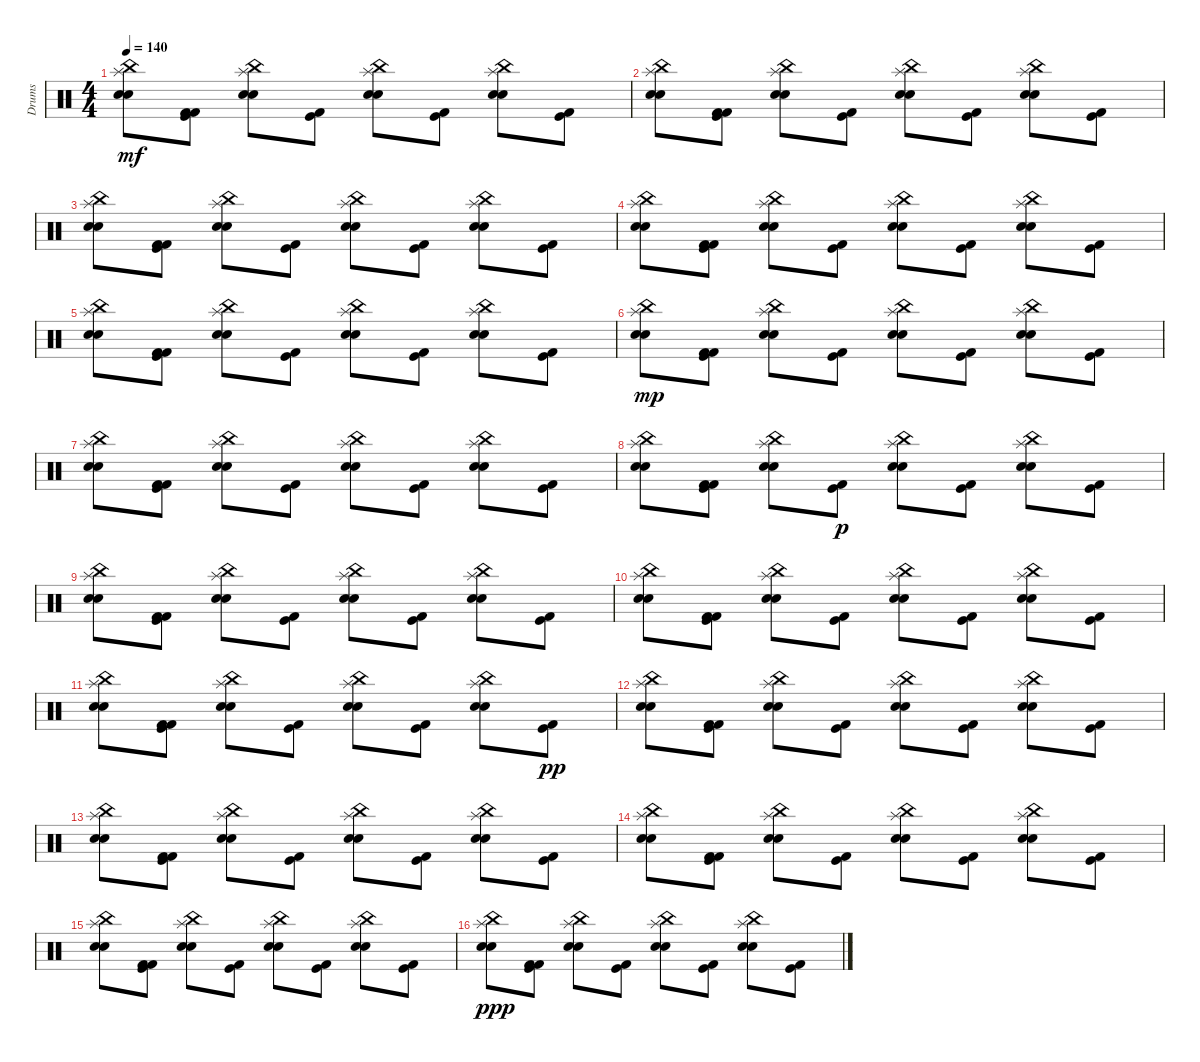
\track ("Drums" "Drums") {instrument percussion}
\staff {score}
\articulation defaults
\ts (4 4)
\tempo 140
\clef neutral
\ks c
("China (hit)" "Snare (hit) 2" "Electric Snare (hit)" "Splash (hit)").8{dy mf} ("Kick (hit) 2" "Kick (hit) 2" "Kick (hit)").8 ("Splash (hit)" "Electric Snare (hit)" "Snare (hit) 2" "China (hit)").8 ("Kick (hit)" "Kick (hit) 2").8 ("China (hit)" "Splash (hit)" "Electric Snare (hit)" "Snare (hit) 2").8 ("Kick (hit)" "Kick (hit) 2").8 ("Snare (hit) 2" "Electric Snare (hit)" "Splash (hit)" "China (hit)").8 ("Kick (hit)" "Kick (hit) 2").8 |
("China (hit)" "Snare (hit) 2" "Electric Snare (hit)" "Splash (hit)").8 ("Kick (hit) 2" "Kick (hit) 2" "Kick (hit)").8 ("Splash (hit)" "Electric Snare (hit)" "Snare (hit) 2" "China (hit)").8 ("Kick (hit)" "Kick (hit) 2").8 ("China (hit)" "Splash (hit)" "Electric Snare (hit)" "Snare (hit) 2").8 ("Kick (hit)" "Kick (hit) 2").8 ("Snare (hit) 2" "Electric Snare (hit)" "Splash (hit)" "China (hit)").8 ("Kick (hit)" "Kick (hit) 2").8 |
("China (hit)" "Snare (hit) 2" "Electric Snare (hit)" "Splash (hit)").8 ("Kick (hit) 2" "Kick (hit) 2" "Kick (hit)").8 ("Splash (hit)" "Electric Snare (hit)" "Snare (hit) 2" "China (hit)").8 ("Kick (hit) 2" "Kick (hit)").8 ("China (hit)" "Splash (hit)" "Electric Snare (hit)" "Snare (hit) 2").8 ("Kick (hit)" "Kick (hit) 2").8 ("Snare (hit) 2" "Electric Snare (hit)" "Splash (hit)" "China (hit)").8 ("Kick (hit)" "Kick (hit) 2").8 |
("China (hit)" "Snare (hit) 2" "Electric Snare (hit)" "Splash (hit)").8 ("Kick (hit) 2" "Kick (hit) 2" "Kick (hit)").8 ("Splash (hit)" "Electric Snare (hit)" "Snare (hit) 2" "China (hit)").8 ("Kick (hit)" "Kick (hit) 2").8 ("China (hit)" "Splash (hit)" "Electric Snare (hit)" "Snare (hit) 2").8 ("Kick (hit)" "Kick (hit) 2").8 ("Snare (hit) 2" "Electric Snare (hit)" "Splash (hit)" "China (hit)").8 ("Kick (hit)" "Kick (hit) 2").8 |
("China (hit)" "Snare (hit) 2" "Electric Snare (hit)" "Splash (hit)").8 ("Kick (hit) 2" "Kick (hit) 2" "Kick (hit)").8 ("Splash (hit)" "Electric Snare (hit)" "Snare (hit) 2" "China (hit)").8 ("Kick (hit) 2" "Kick (hit)").8 ("Splash (hit)" "Electric Snare (hit)" "Snare (hit) 2" "China (hit)").8 ("Kick (hit) 2" "Kick (hit)").8 ("Snare (hit) 2" "Electric Snare (hit)" "Splash (hit)" "China (hit)").8 ("Kick (hit)" "Kick (hit) 2").8 |
("China (hit)" "Snare (hit) 2" "Electric Snare (hit)" "Splash (hit)").8{dy mp} ("Kick (hit) 2" "Kick (hit) 2" "Kick (hit)").8 ("Splash (hit)" "Electric Snare (hit)" "Snare (hit) 2" "China (hit)").8 ("Kick (hit)" "Kick (hit) 2").8 ("China (hit)" "Splash (hit)" "Electric Snare (hit)" "Snare (hit) 2").8 ("Kick (hit)" "Kick (hit) 2").8 ("Snare (hit) 2" "Electric Snare (hit)" "Splash (hit)" "China (hit)").8 ("Kick (hit)" "Kick (hit) 2").8 |
("China (hit)" "Snare (hit) 2" "Electric Snare (hit)" "Splash (hit)").8 ("Kick (hit) 2" "Kick (hit) 2" "Kick (hit)").8 ("Splash (hit)" "Electric Snare (hit)" "Snare (hit) 2" "China (hit)").8 ("Kick (hit)" "Kick (hit) 2").8 ("China (hit)" "Splash (hit)" "Electric Snare (hit)" "Snare (hit) 2").8 ("Kick (hit)" "Kick (hit) 2").8 ("Snare (hit) 2" "Electric Snare (hit)" "Splash (hit)" "China (hit)").8 ("Kick (hit)" "Kick (hit) 2").8 |
("China (hit)" "Snare (hit) 2" "Electric Snare (hit)" "Splash (hit)").8 ("Kick (hit) 2" "Kick (hit) 2" "Kick (hit)").8 ("Splash (hit)" "Electric Snare (hit)" "Snare (hit) 2" "China (hit)").8 ("Kick (hit) 2" "Kick (hit)").8{dy p} ("China (hit)" "Splash (hit)" "Electric Snare (hit)" "Snare (hit) 2").8 ("Kick (hit)" "Kick (hit) 2").8 ("Snare (hit) 2" "Electric Snare (hit)" "Splash (hit)" "China (hit)").8 ("Kick (hit)" "Kick (hit) 2").8 |
("China (hit)" "Snare (hit) 2" "Electric Snare (hit)" "Splash (hit)").8 ("Kick (hit) 2" "Kick (hit) 2" "Kick (hit)").8 ("Splash (hit)" "Electric Snare (hit)" "Snare (hit) 2" "China (hit)").8 ("Kick (hit)" "Kick (hit) 2").8 ("China (hit)" "Splash (hit)" "Electric Snare (hit)" "Snare (hit) 2").8 ("Kick (hit)" "Kick (hit) 2").8 ("Snare (hit) 2" "Electric Snare (hit)" "Splash (hit)" "China (hit)").8 ("Kick (hit)" "Kick (hit) 2").8 |
("China (hit)" "Snare (hit) 2" "Electric Snare (hit)" "Splash (hit)").8 ("Kick (hit) 2" "Kick (hit) 2" "Kick (hit)").8 ("Splash (hit)" "Electric Snare (hit)" "Snare (hit) 2" "China (hit)").8 ("Kick (hit) 2" "Kick (hit)").8 ("Splash (hit)" "Electric Snare (hit)" "Snare (hit) 2" "China (hit)").8 ("Kick (hit) 2" "Kick (hit)").8 ("Snare (hit) 2" "Electric Snare (hit)" "Splash (hit)" "China (hit)").8 ("Kick (hit)" "Kick (hit) 2").8 |
("China (hit)" "Snare (hit) 2" "Electric Snare (hit)" "Splash (hit)").8 ("Kick (hit) 2" "Kick (hit) 2" "Kick (hit)").8 ("Splash (hit)" "Electric Snare (hit)" "Snare (hit) 2" "China (hit)").8 ("Kick (hit)" "Kick (hit) 2").8 ("China (hit)" "Splash (hit)" "Electric Snare (hit)" "Snare (hit) 2").8 ("Kick (hit)" "Kick (hit) 2").8 ("Snare (hit) 2" "Electric Snare (hit)" "Splash (hit)" "China (hit)").8 ("Kick (hit)" "Kick (hit) 2").8{dy pp} |
("China (hit)" "Snare (hit) 2" "Electric Snare (hit)" "Splash (hit)").8 ("Kick (hit) 2" "Kick (hit) 2" "Kick (hit)").8 ("Splash (hit)" "Electric Snare (hit)" "Snare (hit) 2" "China (hit)").8 ("Kick (hit)" "Kick (hit) 2").8 ("China (hit)" "Splash (hit)" "Electric Snare (hit)" "Snare (hit) 2").8 ("Kick (hit)" "Kick (hit) 2").8 ("Snare (hit) 2" "Electric Snare (hit)" "Splash (hit)" "China (hit)").8 ("Kick (hit)" "Kick (hit) 2").8 |
("China (hit)" "Snare (hit) 2" "Electric Snare (hit)" "Splash (hit)").8 ("Kick (hit) 2" "Kick (hit) 2" "Kick (hit)").8 ("Splash (hit)" "Electric Snare (hit)" "Snare (hit) 2" "China (hit)").8 ("Kick (hit) 2" "Kick (hit)").8 ("China (hit)" "Splash (hit)" "Electric Snare (hit)" "Snare (hit) 2").8 ("Kick (hit)" "Kick (hit) 2").8 ("Snare (hit) 2" "Electric Snare (hit)" "Splash (hit)" "China (hit)").8 ("Kick (hit)" "Kick (hit) 2").8 |
("China (hit)" "Snare (hit) 2" "Electric Snare (hit)" "Splash (hit)").8 ("Kick (hit) 2" "Kick (hit) 2" "Kick (hit)").8 ("Splash (hit)" "Electric Snare (hit)" "Snare (hit) 2" "China (hit)").8 ("Kick (hit)" "Kick (hit) 2").8 ("China (hit)" "Splash (hit)" "Electric Snare (hit)" "Snare (hit) 2").8 ("Kick (hit)" "Kick (hit) 2").8 ("Snare (hit) 2" "Electric Snare (hit)" "Splash (hit)" "China (hit)").8 ("Kick (hit)" "Kick (hit) 2").8 |
("China (hit)" "Snare (hit) 2" "Electric Snare (hit)" "Splash (hit)").8 ("Kick (hit) 2" "Kick (hit) 2" "Kick (hit)").8 ("Splash (hit)" "Electric Snare (hit)" "Snare (hit) 2" "China (hit)").8 ("Kick (hit) 2" "Kick (hit)").8 ("Splash (hit)" "Electric Snare (hit)" "Snare (hit) 2" "China (hit)").8 ("Kick (hit) 2" "Kick (hit)").8 ("Snare (hit) 2" "Electric Snare (hit)" "Splash (hit)" "China (hit)").8 ("Kick (hit)" "Kick (hit) 2").8 |
("China (hit)" "Snare (hit) 2" "Electric Snare (hit)" "Splash (hit)").8{dy ppp} ("Kick (hit) 2" "Kick (hit) 2" "Kick (hit)").8 ("Splash (hit)" "Electric Snare (hit)" "Snare (hit) 2" "China (hit)").8 ("Kick (hit)" "Kick (hit) 2").8 ("China (hit)" "Splash (hit)" "Electric Snare (hit)" "Snare (hit) 2").8 ("Kick (hit)" "Kick (hit) 2").8 ("Snare (hit) 2" "Electric Snare (hit)" "Splash (hit)" "China (hit)").8 ("Kick (hit)" "Kick (hit) 2").8
